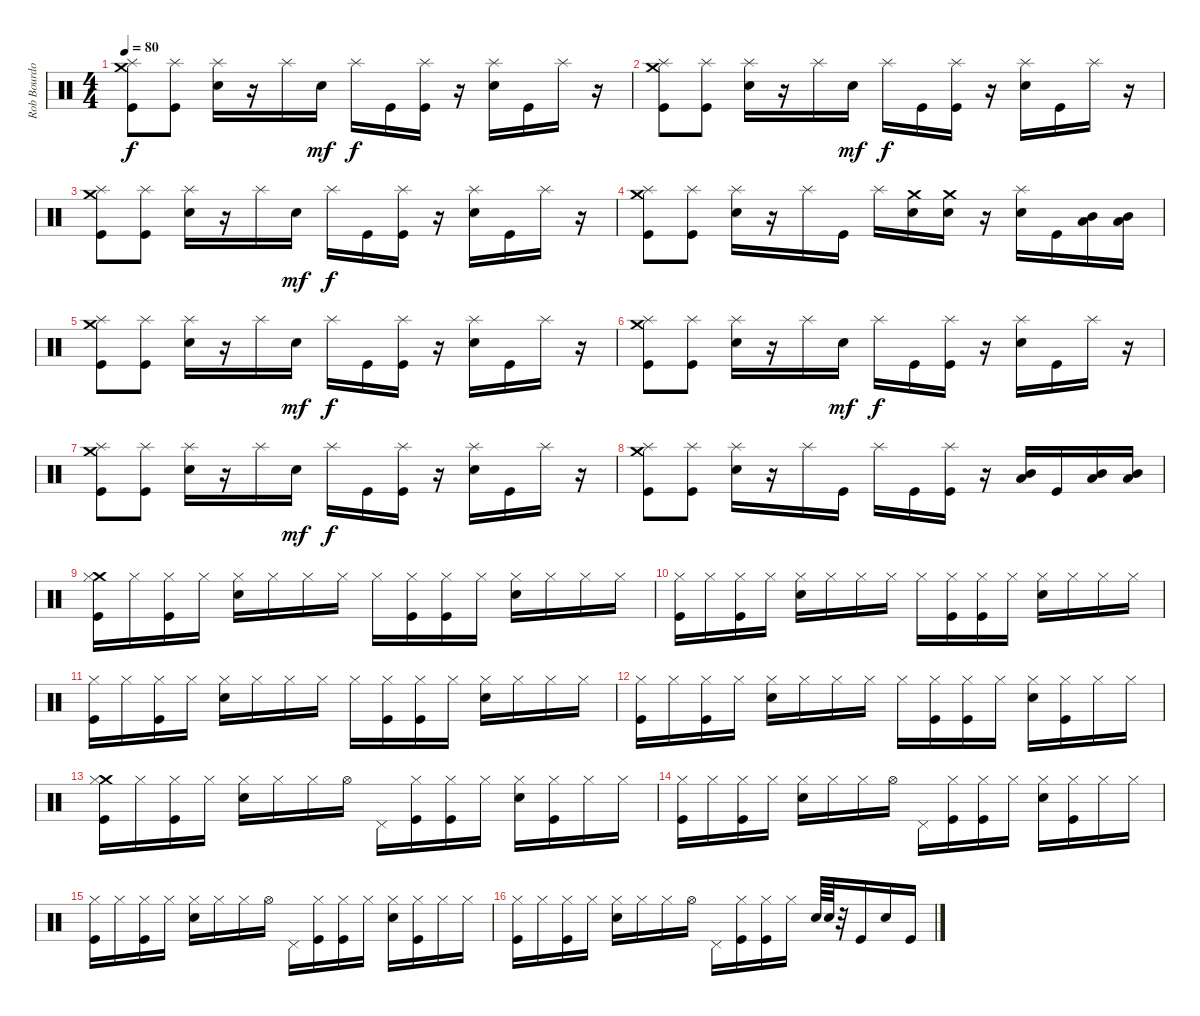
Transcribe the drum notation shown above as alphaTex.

\track ("Rob Bourdon" "Rob Bourdo") {instrument percussion}
\staff {score}
\articulation defaults
\ts (4 4)
\tempo 80
\clef neutral
\ks c
("Crash medium (hit)" "Splash (hit)" "Kick (hit)").8{dy f} ("Splash (hit)" "Kick (hit)").8 ("Splash (hit)" "Snare (hit) 2").16 r.16 "Splash (hit)".16 "Snare (hit) 2".16{dy mf} "Splash (hit)".16{dy f} "Kick (hit)".16 ("Splash (hit)" "Kick (hit)").16 r.16 ("Splash (hit)" "Snare (hit) 2").16 "Kick (hit)".16 "Splash (hit)".16 r.16 |
("Crash medium (hit)" "Splash (hit)" "Kick (hit)").8 ("Splash (hit)" "Kick (hit)").8 ("Splash (hit)" "Snare (hit) 2").16 r.16 "Splash (hit)".16 "Snare (hit) 2".16{dy mf} "Splash (hit)".16{dy f} "Kick (hit)".16 ("Splash (hit)" "Kick (hit)").16 r.16 ("Splash (hit)" "Snare (hit) 2").16 "Kick (hit)".16 "Splash (hit)".16 r.16 |
("Crash medium (hit)" "Splash (hit)" "Kick (hit)").8 ("Splash (hit)" "Kick (hit)").8 ("Splash (hit)" "Snare (hit) 2").16 r.16 "Splash (hit)".16 "Snare (hit) 2".16{dy mf} "Splash (hit)".16{dy f} "Kick (hit)".16 ("Splash (hit)" "Kick (hit)").16 r.16 ("Splash (hit)" "Snare (hit) 2").16 "Kick (hit)".16 "Splash (hit)".16 r.16 |
("Crash medium (hit)" "Splash (hit)" "Kick (hit)").8 ("Splash (hit)" "Kick (hit)").8 ("Splash (hit)" "Snare (hit) 2").16 r.16 "Splash (hit)".16 "Kick (hit)".16 "Splash (hit)".16 ("Crash medium (hit)" "Snare (hit) 2").16 ("Crash medium (hit)" "Snare (hit) 2").16 r.16 ("Splash (hit)" "Snare (hit) 2").16 "Kick (hit)".16 ("Mid Tom (hit)" "Low Tom (hit)").16 ("Mid Tom (hit)" "Low Tom (hit)").16 |
("Crash medium (hit)" "Splash (hit)" "Kick (hit)").8 ("Splash (hit)" "Kick (hit)").8 ("Splash (hit)" "Snare (hit) 2").16 r.16 "Splash (hit)".16 "Snare (hit) 2".16{dy mf} "Splash (hit)".16{dy f} "Kick (hit)".16 ("Splash (hit)" "Kick (hit)").16 r.16 ("Splash (hit)" "Snare (hit) 2").16 "Kick (hit)".16 "Splash (hit)".16 r.16 |
("Crash medium (hit)" "Splash (hit)" "Kick (hit)").8 ("Splash (hit)" "Kick (hit)").8 ("Splash (hit)" "Snare (hit) 2").16 r.16 "Splash (hit)".16 "Snare (hit) 2".16{dy mf} "Splash (hit)".16{dy f} "Kick (hit)".16 ("Splash (hit)" "Kick (hit)").16 r.16 ("Splash (hit)" "Snare (hit) 2").16 "Kick (hit)".16 "Splash (hit)".16 r.16 |
("Crash medium (hit)" "Splash (hit)" "Kick (hit)").8 ("Splash (hit)" "Kick (hit)").8 ("Splash (hit)" "Snare (hit) 2").16 r.16 "Splash (hit)".16 "Snare (hit) 2".16{dy mf} "Splash (hit)".16{dy f} "Kick (hit)".16 ("Splash (hit)" "Kick (hit)").16 r.16 ("Splash (hit)" "Snare (hit) 2").16 "Kick (hit)".16 "Splash (hit)".16 r.16 |
("Crash medium (hit)" "Splash (hit)" "Kick (hit)").8 ("Splash (hit)" "Kick (hit)").8 ("Splash (hit)" "Snare (hit) 2").16 r.16 "Splash (hit)".16 "Kick (hit)".16 "Splash (hit)".16 "Kick (hit)".16 ("Splash (hit)" "Kick (hit)").16 r.16 ("Mid Tom (hit)" "Low Tom (hit)").16 "Kick (hit)".16 ("Mid Tom (hit)" "Low Tom (hit)").16 ("Mid Tom (hit)" "Low Tom (hit)").16 |
("Crash medium (hit)" "Hi-Hat (closed)" "Kick (hit)").16 "Hi-Hat (closed)".16 ("Hi-Hat (closed)" "Kick (hit)").16 "Hi-Hat (closed)".16 ("Hi-Hat (closed)" "Snare (hit) 2").16 "Hi-Hat (closed)".16 "Hi-Hat (closed)".16 "Hi-Hat (closed)".16 "Hi-Hat (closed)".16 ("Hi-Hat (closed)" "Kick (hit)").16 ("Hi-Hat (closed)" "Kick (hit)").16 "Hi-Hat (closed)".16 ("Hi-Hat (closed)" "Snare (hit) 2").16 "Hi-Hat (closed)".16 "Hi-Hat (closed)".16 "Hi-Hat (closed)".16 |
("Hi-Hat (closed)" "Kick (hit)").16 "Hi-Hat (closed)".16 ("Hi-Hat (closed)" "Kick (hit)").16 "Hi-Hat (closed)".16 ("Hi-Hat (closed)" "Snare (hit) 2").16 "Hi-Hat (closed)".16 "Hi-Hat (closed)".16 "Hi-Hat (closed)".16 "Hi-Hat (closed)".16 ("Hi-Hat (closed)" "Kick (hit)").16 ("Hi-Hat (closed)" "Kick (hit)").16 "Hi-Hat (closed)".16 ("Hi-Hat (closed)" "Snare (hit) 2").16 "Hi-Hat (closed)".16 "Hi-Hat (closed)".16 "Hi-Hat (closed)".16 |
("Hi-Hat (closed)" "Kick (hit)").16 "Hi-Hat (closed)".16 ("Hi-Hat (closed)" "Kick (hit)").16 "Hi-Hat (closed)".16 ("Hi-Hat (closed)" "Snare (hit) 2").16 "Hi-Hat (closed)".16 "Hi-Hat (closed)".16 "Hi-Hat (closed)".16 "Hi-Hat (closed)".16 ("Hi-Hat (closed)" "Kick (hit)").16 ("Hi-Hat (closed)" "Kick (hit)").16 "Hi-Hat (closed)".16 ("Hi-Hat (closed)" "Snare (hit) 2").16 "Hi-Hat (closed)".16 "Hi-Hat (closed)".16 "Hi-Hat (closed)".16 |
("Hi-Hat (closed)" "Kick (hit)").16 "Hi-Hat (closed)".16 ("Hi-Hat (closed)" "Kick (hit)").16 "Hi-Hat (closed)".16 ("Hi-Hat (closed)" "Snare (hit) 2").16 "Hi-Hat (closed)".16 "Hi-Hat (closed)".16 "Hi-Hat (closed)".16 "Hi-Hat (closed)".16 ("Hi-Hat (closed)" "Kick (hit)").16 ("Hi-Hat (closed)" "Kick (hit)").16 "Hi-Hat (closed)".16 ("Hi-Hat (closed)" "Snare (hit) 2").16 ("Hi-Hat (closed)" "Kick (hit)").16 "Hi-Hat (closed)".16 "Hi-Hat (closed)".16 |
("Crash medium (hit)" "Hi-Hat (closed)" "Kick (hit)").16 "Hi-Hat (closed)".16 ("Hi-Hat (closed)" "Kick (hit)").16 "Hi-Hat (closed)".16 ("Hi-Hat (closed)" "Snare (hit) 2").16 "Hi-Hat (closed)".16 "Hi-Hat (closed)".16 "Hi-Hat (open)".16 "Pedal Hi-Hat (hit)".16 ("Hi-Hat (closed)" "Kick (hit)").16 ("Hi-Hat (closed)" "Kick (hit)").16 "Hi-Hat (closed)".16 ("Hi-Hat (closed)" "Snare (hit) 2").16 ("Hi-Hat (closed)" "Kick (hit)").16 "Hi-Hat (closed)".16 "Hi-Hat (closed)".16 |
("Hi-Hat (closed)" "Kick (hit)").16 "Hi-Hat (closed)".16 ("Hi-Hat (closed)" "Kick (hit)").16 "Hi-Hat (closed)".16 ("Hi-Hat (closed)" "Snare (hit) 2").16 "Hi-Hat (closed)".16 "Hi-Hat (closed)".16 "Hi-Hat (open)".16 "Pedal Hi-Hat (hit)".16 ("Hi-Hat (closed)" "Kick (hit)").16 ("Hi-Hat (closed)" "Kick (hit)").16 "Hi-Hat (closed)".16 ("Hi-Hat (closed)" "Snare (hit) 2").16 ("Hi-Hat (closed)" "Kick (hit)").16 "Hi-Hat (closed)".16 "Hi-Hat (closed)".16 |
("Hi-Hat (closed)" "Kick (hit)").16 "Hi-Hat (closed)".16 ("Hi-Hat (closed)" "Kick (hit)").16 "Hi-Hat (closed)".16 ("Hi-Hat (closed)" "Snare (hit) 2").16 "Hi-Hat (closed)".16 "Hi-Hat (closed)".16 "Hi-Hat (open)".16 "Pedal Hi-Hat (hit)".16 ("Hi-Hat (closed)" "Kick (hit)").16 ("Hi-Hat (closed)" "Kick (hit)").16 "Hi-Hat (closed)".16 ("Hi-Hat (closed)" "Snare (hit) 2").16 ("Hi-Hat (closed)" "Kick (hit)").16 "Hi-Hat (closed)".16 "Hi-Hat (closed)".16 |
("Hi-Hat (closed)" "Kick (hit)").16 "Hi-Hat (closed)".16 ("Hi-Hat (closed)" "Kick (hit)").16 "Hi-Hat (closed)".16 ("Hi-Hat (closed)" "Snare (hit) 2").16 "Hi-Hat (closed)".16 "Hi-Hat (closed)".16 "Hi-Hat (open)".16 "Pedal Hi-Hat (hit)".16 ("Hi-Hat (closed)" "Kick (hit)").16 ("Hi-Hat (closed)" "Kick (hit)").16 "Hi-Hat (closed)".16 "Snare (hit) 2".64 "Snare (hit) 2".64 r.32 "Kick (hit)".16 "Snare (hit) 2".16 "Kick (hit)".16
